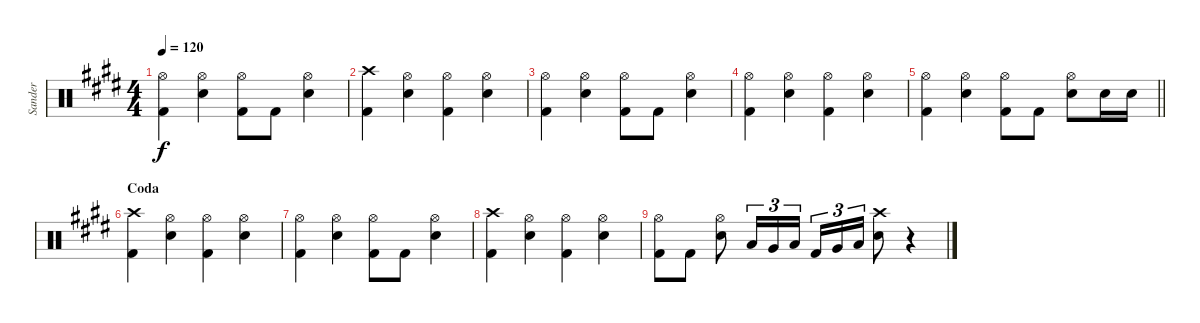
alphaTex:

\track ("Sander" "Sander") {instrument percussion}
\staff {score}
\articulation defaults
\ts (4 4)
\tempo 120
\clef neutral
\ks c#minor
("Hi-Hat (open)" "Kick (hit) 2").4{dy f} ("Hi-Hat (open)" "Snare (hit) 2").4 ("Hi-Hat (open)" "Kick (hit) 2").8 "Kick (hit) 2".8 ("Hi-Hat (open)" "Snare (hit) 2").4 |
("Crash high (hit)" "Kick (hit) 2").4 ("Hi-Hat (open)" "Snare (hit) 2").4 ("Hi-Hat (open)" "Kick (hit) 2").4 ("Hi-Hat (open)" "Snare (hit) 2").4 |
("Hi-Hat (open)" "Kick (hit) 2").4 ("Hi-Hat (open)" "Snare (hit) 2").4 ("Hi-Hat (open)" "Kick (hit) 2").8 "Kick (hit) 2".8 ("Hi-Hat (open)" "Snare (hit) 2").4 |
("Hi-Hat (open)" "Kick (hit) 2").4 ("Hi-Hat (open)" "Snare (hit) 2").4 ("Hi-Hat (open)" "Kick (hit) 2").4 ("Hi-Hat (open)" "Snare (hit) 2").4 |
\barLineRight lightlight
("Hi-Hat (open)" "Kick (hit) 2").4 ("Hi-Hat (open)" "Snare (hit) 2").4 ("Hi-Hat (open)" "Kick (hit) 2").8 "Kick (hit) 2".8 ("Hi-Hat (open)" "Snare (hit) 2").8 "Snare (hit) 2".16 "Snare (hit) 2".16 |
\section ("" "Coda")
("Crash high (hit)" "Kick (hit) 2").4 ("Hi-Hat (open)" "Snare (hit) 2").4 ("Hi-Hat (open)" "Kick (hit) 2").4 ("Hi-Hat (open)" "Snare (hit) 2").4 |
("Hi-Hat (open)" "Kick (hit) 2").4 ("Hi-Hat (open)" "Snare (hit) 2").4 ("Hi-Hat (open)" "Kick (hit) 2").8 "Kick (hit) 2".8 ("Hi-Hat (open)" "Snare (hit) 2").4 |
("Crash high (hit)" "Kick (hit) 2").4 ("Hi-Hat (open)" "Snare (hit) 2").4 ("Hi-Hat (open)" "Kick (hit) 2").4 ("Hi-Hat (open)" "Snare (hit) 2").4 |
("Hi-Hat (open)" "Kick (hit) 2").8 "Kick (hit) 2".8 ("Hi-Hat (open)" "Snare (hit) 2").8 "Low Tom (hit)".16{tu (3 2)} "Very Low Tom (hit)".16{tu (3 2)} "Low Floor Tom (hit)".16{tu (3 2)} "Kick (hit) 2".16{tu (3 2)} "Very Low Tom (hit)".16{tu (3 2)} "Low Floor Tom (hit)".16{tu (3 2)} ("Crash high (hit)" "Snare (hit) 2").8 r.4
